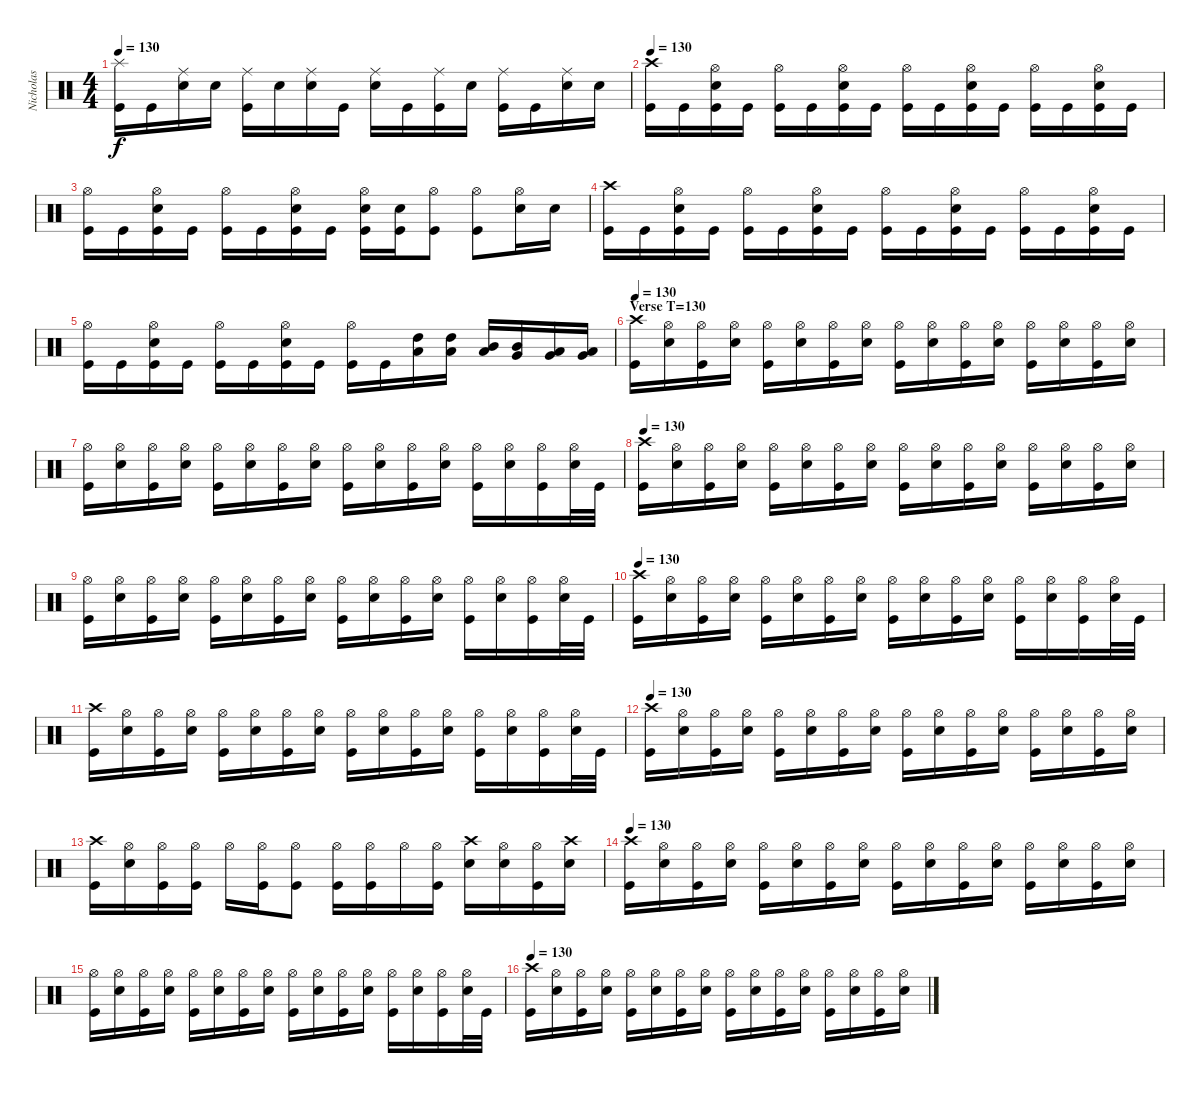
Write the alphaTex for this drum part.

\track ("Nicholas" "Nicholas") {instrument percussion}
\staff {score}
\articulation defaults
\ts (4 4)
\tempo 130
\clef neutral
\ks c
("Splash (hit)" "Kick (hit)").16{dy f} "Kick (hit)".16 ("Ride (middle)" "Electric Snare (hit)").16 "Electric Snare (hit)".16 ("Ride (middle)" "Kick (hit)").16 "Electric Snare (hit)".16 ("Ride (middle)" "Electric Snare (hit)").16 "Kick (hit)".16 ("Ride (middle)" "Electric Snare (hit)").16 "Kick (hit)".16 ("Ride (middle)" "Kick (hit)").16 "Electric Snare (hit)".16 ("Ride (middle)" "Kick (hit)").16 "Kick (hit)".16 ("Ride (middle)" "Electric Snare (hit)").16 "Electric Snare (hit)".16 |
\tempo 130
("Crash high (hit)" "Kick (hit)").16 "Kick (hit)".16 ("Hi-Hat (open)" "Electric Snare (hit)" "Kick (hit)").16 "Kick (hit)".16 ("Hi-Hat (open)" "Kick (hit)").16 "Kick (hit)".16 ("Hi-Hat (open)" "Electric Snare (hit)" "Kick (hit)").16 "Kick (hit)".16 ("Hi-Hat (open)" "Kick (hit)").16 "Kick (hit)".16 ("Hi-Hat (open)" "Electric Snare (hit)" "Kick (hit)").16 "Kick (hit)".16 ("Hi-Hat (open)" "Kick (hit)").16 "Kick (hit)".16 ("Hi-Hat (open)" "Electric Snare (hit)" "Kick (hit)").16 "Kick (hit)".16 |
("Hi-Hat (open)" "Kick (hit)").16 "Kick (hit)".16 ("Hi-Hat (open)" "Electric Snare (hit)" "Kick (hit)").16 "Kick (hit)".16 ("Hi-Hat (open)" "Kick (hit)").16 "Kick (hit)".16 ("Hi-Hat (open)" "Electric Snare (hit)" "Kick (hit)").16 "Kick (hit)".16 ("Hi-Hat (open)" "Electric Snare (hit)" "Kick (hit)").16 ("Electric Snare (hit)" "Kick (hit)").16 ("Hi-Hat (open)" "Kick (hit)").8 ("Hi-Hat (open)" "Kick (hit)").8 ("Hi-Hat (open)" "Electric Snare (hit)").16 "Electric Snare (hit)".16 |
("Crash high (hit)" "Kick (hit)").16 "Kick (hit)".16 ("Hi-Hat (open)" "Electric Snare (hit)" "Kick (hit)").16 "Kick (hit)".16 ("Hi-Hat (open)" "Kick (hit)").16 "Kick (hit)".16 ("Hi-Hat (open)" "Electric Snare (hit)" "Kick (hit)").16 "Kick (hit)".16 ("Hi-Hat (open)" "Kick (hit)").16 "Kick (hit)".16 ("Hi-Hat (open)" "Electric Snare (hit)" "Kick (hit)").16 "Kick (hit)".16 ("Hi-Hat (open)" "Kick (hit)").16 "Kick (hit)".16 ("Hi-Hat (open)" "Electric Snare (hit)" "Kick (hit)").16 "Kick (hit)".16 |
("Hi-Hat (open)" "Kick (hit)").16 "Kick (hit)".16 ("Hi-Hat (open)" "Electric Snare (hit)" "Kick (hit)").16 "Kick (hit)".16 ("Hi-Hat (open)" "Kick (hit)").16 "Kick (hit)".16 ("Hi-Hat (open)" "Electric Snare (hit)" "Kick (hit)").16 "Kick (hit)".16 ("Hi-Hat (open)" "Kick (hit)").16 "Kick (hit)".16 ("High Tom (hit)" "Low Tom (hit)").16{balance 13} ("High Tom (hit)" "Low Tom (hit)").16 ("Mid Tom (hit)" "Low Tom (hit)").16 ("Mid Tom (hit)" "Very Low Tom (hit)").16{balance 11} ("Low Tom (hit)" "Very Low Tom (hit)").16 ("Low Tom (hit)" "Very Low Tom (hit)").16 |
\section ("" "Verse T=130")
\tempo 130
("Crash high (hit)" "Kick (hit)").16 ("Hi-Hat (open)" "Electric Snare (hit)").16 ("Hi-Hat (open)" "Kick (hit)").16 ("Hi-Hat (open)" "Electric Snare (hit)").16 ("Hi-Hat (open)" "Kick (hit)").16 ("Hi-Hat (open)" "Electric Snare (hit)").16 ("Hi-Hat (open)" "Kick (hit)").16 ("Hi-Hat (open)" "Electric Snare (hit)").16 ("Hi-Hat (open)" "Kick (hit)").16 ("Hi-Hat (open)" "Electric Snare (hit)").16 ("Hi-Hat (open)" "Kick (hit)").16 ("Hi-Hat (open)" "Electric Snare (hit)").16 ("Hi-Hat (open)" "Kick (hit)").16 ("Hi-Hat (open)" "Electric Snare (hit)").16 ("Hi-Hat (open)" "Kick (hit)").16 ("Hi-Hat (open)" "Electric Snare (hit)").16 |
("Hi-Hat (open)" "Kick (hit)").16 ("Hi-Hat (open)" "Electric Snare (hit)").16 ("Hi-Hat (open)" "Kick (hit)").16 ("Hi-Hat (open)" "Electric Snare (hit)").16 ("Hi-Hat (open)" "Kick (hit)").16 ("Hi-Hat (open)" "Electric Snare (hit)").16 ("Hi-Hat (open)" "Kick (hit)").16 ("Hi-Hat (open)" "Electric Snare (hit)").16 ("Hi-Hat (open)" "Kick (hit)").16 ("Hi-Hat (open)" "Electric Snare (hit)").16 ("Hi-Hat (open)" "Kick (hit)").16 ("Hi-Hat (open)" "Electric Snare (hit)").16 ("Hi-Hat (open)" "Kick (hit)").16 ("Hi-Hat (open)" "Electric Snare (hit)").16 ("Hi-Hat (open)" "Kick (hit)").16 ("Hi-Hat (open)" "Electric Snare (hit)").32 "Kick (hit)".32 |
\tempo 130
("Crash high (hit)" "Kick (hit)").16 ("Hi-Hat (open)" "Electric Snare (hit)").16 ("Hi-Hat (open)" "Kick (hit)").16 ("Hi-Hat (open)" "Electric Snare (hit)").16 ("Hi-Hat (open)" "Kick (hit)").16 ("Hi-Hat (open)" "Electric Snare (hit)").16 ("Hi-Hat (open)" "Kick (hit)").16 ("Hi-Hat (open)" "Electric Snare (hit)").16 ("Hi-Hat (open)" "Kick (hit)").16 ("Hi-Hat (open)" "Electric Snare (hit)").16 ("Hi-Hat (open)" "Kick (hit)").16 ("Hi-Hat (open)" "Electric Snare (hit)").16 ("Hi-Hat (open)" "Kick (hit)").16 ("Hi-Hat (open)" "Electric Snare (hit)").16 ("Hi-Hat (open)" "Kick (hit)").16 ("Hi-Hat (open)" "Electric Snare (hit)").16 |
("Hi-Hat (open)" "Kick (hit)").16 ("Hi-Hat (open)" "Electric Snare (hit)").16 ("Hi-Hat (open)" "Kick (hit)").16 ("Hi-Hat (open)" "Electric Snare (hit)").16 ("Hi-Hat (open)" "Kick (hit)").16 ("Hi-Hat (open)" "Electric Snare (hit)").16 ("Hi-Hat (open)" "Kick (hit)").16 ("Hi-Hat (open)" "Electric Snare (hit)").16 ("Hi-Hat (open)" "Kick (hit)").16 ("Hi-Hat (open)" "Electric Snare (hit)").16 ("Hi-Hat (open)" "Kick (hit)").16 ("Hi-Hat (open)" "Electric Snare (hit)").16 ("Hi-Hat (open)" "Kick (hit)").16 ("Hi-Hat (open)" "Electric Snare (hit)").16 ("Hi-Hat (open)" "Kick (hit)").16 ("Hi-Hat (open)" "Electric Snare (hit)").32 "Kick (hit)".32 |
\tempo 130
("Crash high (hit)" "Kick (hit)").16 ("Hi-Hat (open)" "Electric Snare (hit)").16 ("Hi-Hat (open)" "Kick (hit)").16 ("Hi-Hat (open)" "Electric Snare (hit)").16 ("Hi-Hat (open)" "Kick (hit)").16 ("Hi-Hat (open)" "Electric Snare (hit)").16 ("Hi-Hat (open)" "Kick (hit)").16 ("Hi-Hat (open)" "Electric Snare (hit)").16 ("Hi-Hat (open)" "Kick (hit)").16 ("Hi-Hat (open)" "Electric Snare (hit)").16 ("Hi-Hat (open)" "Kick (hit)").16 ("Hi-Hat (open)" "Electric Snare (hit)").16 ("Hi-Hat (open)" "Kick (hit)").16 ("Hi-Hat (open)" "Electric Snare (hit)").16 ("Hi-Hat (open)" "Kick (hit)").16 ("Hi-Hat (open)" "Electric Snare (hit)").32 "Kick (hit)".32 |
("Crash high (hit)" "Kick (hit)").16 ("Hi-Hat (open)" "Electric Snare (hit)").16 ("Hi-Hat (open)" "Kick (hit)").16 ("Hi-Hat (open)" "Electric Snare (hit)").16 ("Hi-Hat (open)" "Kick (hit)").16 ("Hi-Hat (open)" "Electric Snare (hit)").16 ("Hi-Hat (open)" "Kick (hit)").16 ("Hi-Hat (open)" "Electric Snare (hit)").16 ("Hi-Hat (open)" "Kick (hit)").16 ("Hi-Hat (open)" "Electric Snare (hit)").16 ("Hi-Hat (open)" "Kick (hit)").16 ("Hi-Hat (open)" "Electric Snare (hit)").16 ("Hi-Hat (open)" "Kick (hit)").16 ("Hi-Hat (open)" "Electric Snare (hit)").16 ("Hi-Hat (open)" "Kick (hit)").16 ("Hi-Hat (open)" "Electric Snare (hit)").32 "Kick (hit)".32 |
\tempo 130
("Crash high (hit)" "Kick (hit)").16 ("Hi-Hat (open)" "Electric Snare (hit)").16 ("Hi-Hat (open)" "Kick (hit)").16 ("Hi-Hat (open)" "Electric Snare (hit)").16 ("Hi-Hat (open)" "Kick (hit)").16 ("Hi-Hat (open)" "Electric Snare (hit)").16 ("Hi-Hat (open)" "Kick (hit)").16 ("Hi-Hat (open)" "Electric Snare (hit)").16 ("Hi-Hat (open)" "Kick (hit)").16 ("Hi-Hat (open)" "Electric Snare (hit)").16 ("Hi-Hat (open)" "Kick (hit)").16 ("Hi-Hat (open)" "Electric Snare (hit)").16 ("Hi-Hat (open)" "Kick (hit)").16 ("Hi-Hat (open)" "Electric Snare (hit)").16 ("Hi-Hat (open)" "Kick (hit)").16 ("Hi-Hat (open)" "Electric Snare (hit)").16 |
("Crash high (hit)" "Kick (hit)").16 ("Hi-Hat (open)" "Electric Snare (hit)").16 ("Hi-Hat (open)" "Kick (hit)").16 ("Hi-Hat (open)" "Kick (hit)").16 "Hi-Hat (open)".16 ("Hi-Hat (open)" "Kick (hit)").16 ("Hi-Hat (open)" "Kick (hit)").8 ("Hi-Hat (open)" "Kick (hit)").16 ("Hi-Hat (open)" "Kick (hit)").16 "Hi-Hat (open)".16 ("Hi-Hat (open)" "Kick (hit)").16 ("Crash high (hit)" "Electric Snare (hit)").16 ("Hi-Hat (open)" "Electric Snare (hit)").16 ("Hi-Hat (open)" "Kick (hit)").16 ("Crash high (hit)" "Electric Snare (hit)").16 |
\tempo 130
("Crash high (hit)" "Kick (hit)").16 ("Hi-Hat (open)" "Electric Snare (hit)").16 ("Hi-Hat (open)" "Kick (hit)").16 ("Hi-Hat (open)" "Electric Snare (hit)").16 ("Hi-Hat (open)" "Kick (hit)").16 ("Hi-Hat (open)" "Electric Snare (hit)").16 ("Hi-Hat (open)" "Kick (hit)").16 ("Hi-Hat (open)" "Electric Snare (hit)").16 ("Hi-Hat (open)" "Kick (hit)").16 ("Hi-Hat (open)" "Electric Snare (hit)").16 ("Hi-Hat (open)" "Kick (hit)").16 ("Hi-Hat (open)" "Electric Snare (hit)").16 ("Hi-Hat (open)" "Kick (hit)").16 ("Hi-Hat (open)" "Electric Snare (hit)").16 ("Hi-Hat (open)" "Kick (hit)").16 ("Hi-Hat (open)" "Electric Snare (hit)").16 |
("Hi-Hat (open)" "Kick (hit)").16 ("Hi-Hat (open)" "Electric Snare (hit)").16 ("Hi-Hat (open)" "Kick (hit)").16 ("Hi-Hat (open)" "Electric Snare (hit)").16 ("Hi-Hat (open)" "Kick (hit)").16 ("Hi-Hat (open)" "Electric Snare (hit)").16 ("Hi-Hat (open)" "Kick (hit)").16 ("Hi-Hat (open)" "Electric Snare (hit)").16 ("Hi-Hat (open)" "Kick (hit)").16 ("Hi-Hat (open)" "Electric Snare (hit)").16 ("Hi-Hat (open)" "Kick (hit)").16 ("Hi-Hat (open)" "Electric Snare (hit)").16 ("Hi-Hat (open)" "Kick (hit)").16 ("Hi-Hat (open)" "Electric Snare (hit)").16 ("Hi-Hat (open)" "Kick (hit)").16 ("Hi-Hat (open)" "Electric Snare (hit)").32 "Kick (hit)".32 |
\tempo 130
("Crash high (hit)" "Kick (hit)").16 ("Hi-Hat (open)" "Electric Snare (hit)").16 ("Hi-Hat (open)" "Kick (hit)").16 ("Hi-Hat (open)" "Electric Snare (hit)").16 ("Hi-Hat (open)" "Kick (hit)").16 ("Hi-Hat (open)" "Electric Snare (hit)").16 ("Hi-Hat (open)" "Kick (hit)").16 ("Hi-Hat (open)" "Electric Snare (hit)").16 ("Hi-Hat (open)" "Kick (hit)").16 ("Hi-Hat (open)" "Electric Snare (hit)").16 ("Hi-Hat (open)" "Kick (hit)").16 ("Hi-Hat (open)" "Electric Snare (hit)").16 ("Hi-Hat (open)" "Kick (hit)").16 ("Hi-Hat (open)" "Electric Snare (hit)").16 ("Hi-Hat (open)" "Kick (hit)").16 ("Hi-Hat (open)" "Electric Snare (hit)").16
